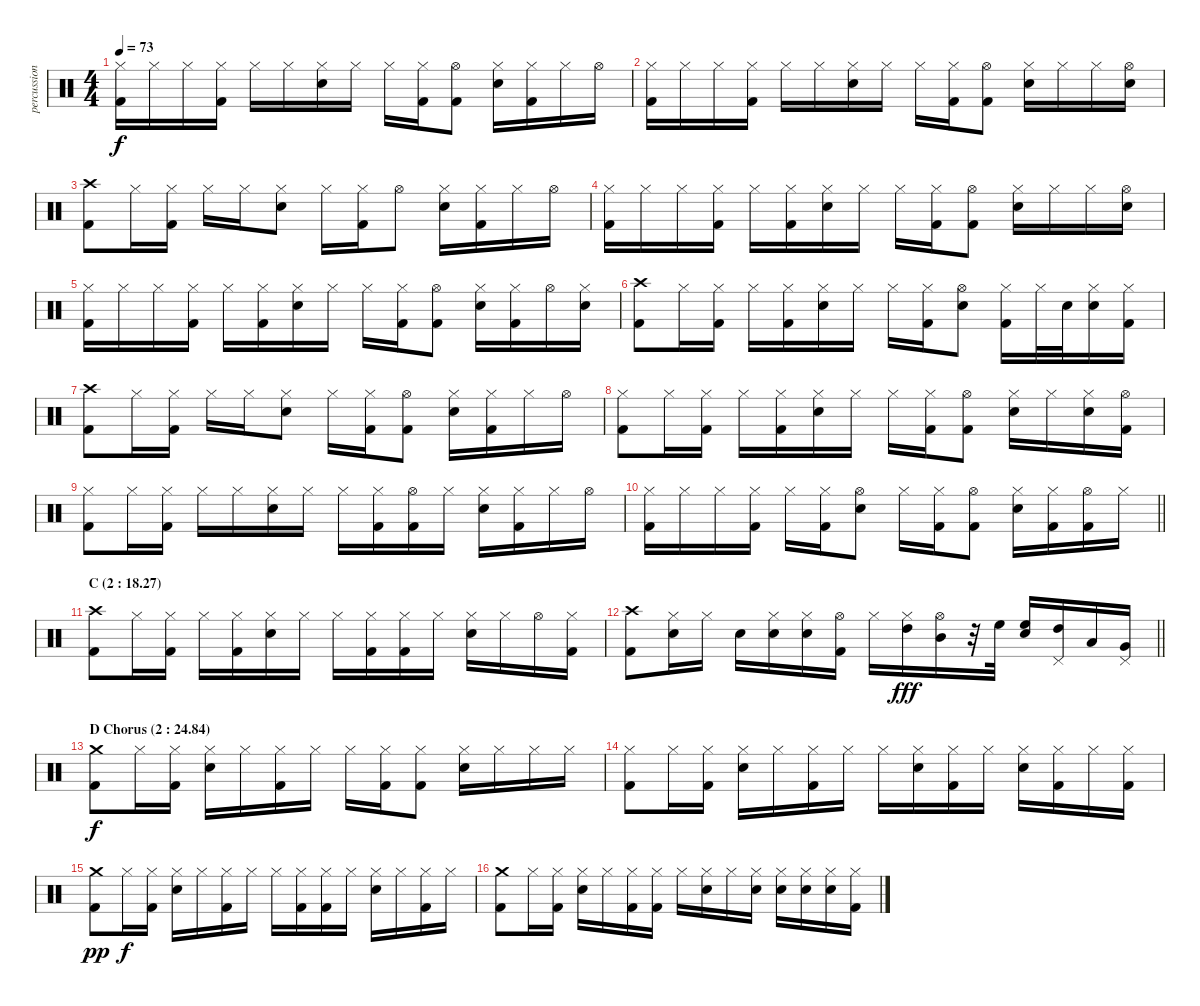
\track ("percussion" "percussion") {instrument percussion}
\staff {score}
\articulation defaults
\ts (4 4)
\tempo 73
\clef neutral
\ks c
("Hi-Hat (closed)" "Kick (hit) 2").16{dy f} "Hi-Hat (closed)".16 "Hi-Hat (closed)".16 ("Hi-Hat (closed)" "Kick (hit) 2").16 "Hi-Hat (closed)".16 "Hi-Hat (closed)".16 ("Snare (hit) 2" "Hi-Hat (closed)").16 "Hi-Hat (closed)".16 "Hi-Hat (closed)".16 ("Hi-Hat (closed)" "Kick (hit) 2").16 ("Hi-Hat (open)" "Kick (hit) 2").8 ("Snare (hit) 2" "Hi-Hat (closed)").16 ("Hi-Hat (closed)" "Kick (hit) 2").16 "Hi-Hat (closed)".16 "Hi-Hat (open)".16 |
("Hi-Hat (closed)" "Kick (hit) 2").16 "Hi-Hat (closed)".16 "Hi-Hat (closed)".16 ("Hi-Hat (closed)" "Kick (hit) 2").16 "Hi-Hat (closed)".16 "Hi-Hat (closed)".16 ("Snare (hit) 2" "Hi-Hat (closed)").16 "Hi-Hat (closed)".16 "Hi-Hat (closed)".16 ("Hi-Hat (closed)" "Kick (hit) 2").16 ("Hi-Hat (open)" "Kick (hit) 2").8 ("Snare (hit) 2" "Hi-Hat (closed)").16 "Hi-Hat (closed)".16 "Hi-Hat (closed)".16 ("Snare (hit) 2" "Hi-Hat (open)").16 |
("Crash high (hit)" "Kick (hit) 2").8 "Hi-Hat (closed)".16 ("Hi-Hat (closed)" "Kick (hit) 2").16 "Hi-Hat (closed)".16 "Hi-Hat (closed)".16 ("Snare (hit) 2" "Hi-Hat (closed)").8 "Hi-Hat (closed)".16 ("Hi-Hat (closed)" "Kick (hit) 2").16 "Hi-Hat (open)".8 ("Snare (hit) 2" "Hi-Hat (closed)").16 ("Hi-Hat (closed)" "Kick (hit) 2").16 "Hi-Hat (closed)".16 "Hi-Hat (open)".16 |
("Hi-Hat (closed)" "Kick (hit) 2").16 "Hi-Hat (closed)".16 "Hi-Hat (closed)".16 ("Hi-Hat (closed)" "Kick (hit) 2").16 "Hi-Hat (closed)".16 ("Hi-Hat (closed)" "Kick (hit) 2").16 ("Snare (hit) 2" "Hi-Hat (closed)").16 "Hi-Hat (closed)".16 "Hi-Hat (closed)".16 ("Hi-Hat (closed)" "Kick (hit) 2").16 ("Hi-Hat (open)" "Kick (hit) 2").8 ("Snare (hit) 2" "Hi-Hat (closed)").16 "Hi-Hat (closed)".16 "Hi-Hat (closed)".16 ("Snare (hit) 2" "Hi-Hat (open)").16 |
("Hi-Hat (closed)" "Kick (hit) 2").16 "Hi-Hat (closed)".16 "Hi-Hat (closed)".16 ("Hi-Hat (closed)" "Kick (hit) 2").16 "Hi-Hat (closed)".16 ("Hi-Hat (closed)" "Kick (hit) 2").16 ("Snare (hit) 2" "Hi-Hat (closed)").16 "Hi-Hat (closed)".16 "Hi-Hat (closed)".16 ("Hi-Hat (closed)" "Kick (hit) 2").16 ("Hi-Hat (open)" "Kick (hit) 2").8 ("Snare (hit) 2" "Hi-Hat (closed)").16 ("Hi-Hat (closed)" "Kick (hit) 2").16 "Hi-Hat (open)".16 ("Snare (hit) 2" "Hi-Hat (closed)").16 |
("Crash high (hit)" "Kick (hit) 2").8 "Hi-Hat (closed)".16 ("Hi-Hat (closed)" "Kick (hit) 2").16 "Hi-Hat (closed)".16 ("Hi-Hat (closed)" "Kick (hit) 2").16 ("Snare (hit) 2" "Hi-Hat (closed)").16 "Hi-Hat (closed)".16 "Hi-Hat (closed)".16 ("Hi-Hat (closed)" "Kick (hit) 2").16 ("Snare (hit) 2" "Hi-Hat (open)").8 ("Hi-Hat (closed)" "Kick (hit) 2").16 "Hi-Hat (closed)".32 "Snare (hit) 2".32 ("Snare (hit) 2" "Hi-Hat (closed)").16 ("Hi-Hat (closed)" "Kick (hit) 2").16 |
("Crash high (hit)" "Kick (hit) 2").8 "Hi-Hat (closed)".16 ("Hi-Hat (closed)" "Kick (hit) 2").16 "Hi-Hat (closed)".16 "Hi-Hat (closed)".16 ("Snare (hit) 2" "Hi-Hat (closed)").8 "Hi-Hat (closed)".16 ("Hi-Hat (closed)" "Kick (hit) 2").16 ("Hi-Hat (open)" "Kick (hit) 2").8 ("Snare (hit) 2" "Hi-Hat (closed)").16 ("Hi-Hat (closed)" "Kick (hit) 2").16 "Hi-Hat (closed)".16 "Hi-Hat (open)".16 |
("Hi-Hat (closed)" "Kick (hit) 2").8 "Hi-Hat (closed)".16 ("Hi-Hat (closed)" "Kick (hit) 2").16 "Hi-Hat (closed)".16 ("Hi-Hat (closed)" "Kick (hit) 2").16 ("Snare (hit) 2" "Hi-Hat (closed)").16 "Hi-Hat (closed)".16 "Hi-Hat (closed)".16 ("Hi-Hat (closed)" "Kick (hit) 2").16 ("Hi-Hat (open)" "Kick (hit) 2").8 ("Snare (hit) 2" "Hi-Hat (closed)").16 "Hi-Hat (closed)".16 ("Snare (hit) 2" "Hi-Hat (closed)").16 ("Hi-Hat (open)" "Kick (hit) 2").16 |
("Hi-Hat (closed)" "Kick (hit) 2").8 "Hi-Hat (closed)".16 ("Hi-Hat (closed)" "Kick (hit) 2").16 "Hi-Hat (closed)".16 "Hi-Hat (closed)".16 ("Snare (hit) 2" "Hi-Hat (closed)").16 "Hi-Hat (closed)".16 "Hi-Hat (closed)".16 ("Hi-Hat (closed)" "Kick (hit) 2").16 ("Hi-Hat (open)" "Kick (hit) 2").16 "Hi-Hat (closed)".16 ("Snare (hit) 2" "Hi-Hat (closed)").16 ("Hi-Hat (closed)" "Kick (hit) 2").16 "Hi-Hat (closed)".16 "Hi-Hat (open)".16 |
\barLineRight lightlight
("Hi-Hat (closed)" "Kick (hit) 2").16 "Hi-Hat (closed)".16 "Hi-Hat (closed)".16 ("Hi-Hat (closed)" "Kick (hit) 2").16 "Hi-Hat (closed)".16 ("Hi-Hat (closed)" "Kick (hit) 2").16 ("Snare (hit) 2" "Hi-Hat (open)").8 "Hi-Hat (closed)".16 ("Hi-Hat (closed)" "Kick (hit) 2").16 ("Hi-Hat (open)" "Kick (hit) 2").8 ("Snare (hit) 2" "Hi-Hat (closed)").16 ("Hi-Hat (closed)" "Kick (hit) 2").16 ("Hi-Hat (open)" "Kick (hit) 2").16 "Hi-Hat (closed)".16 |
\section ("" "C (2 : 18.27)")
("Crash high (hit)" "Kick (hit) 2").8 "Hi-Hat (closed)".16 ("Hi-Hat (closed)" "Kick (hit) 2").16 "Hi-Hat (closed)".16 ("Hi-Hat (closed)" "Kick (hit) 2").16 ("Snare (hit) 2" "Hi-Hat (closed)").16 "Hi-Hat (closed)".16 "Hi-Hat (closed)".16 ("Hi-Hat (closed)" "Kick (hit) 2").16 ("Hi-Hat (closed)" "Kick (hit) 2").16 "Hi-Hat (closed)".16 ("Snare (hit) 2" "Hi-Hat (closed)").16 "Hi-Hat (closed)".16 "Hi-Hat (open)".16 ("Hi-Hat (closed)" "Kick (hit) 2").16 |
\barLineRight lightlight
("Crash high (hit)" "Kick (hit) 2").8 ("Snare (hit) 2" "Hi-Hat (closed)").16 "Hi-Hat (closed)".16 "Snare (hit) 2".16 ("Snare (hit) 2" "Hi-Hat (closed)").16 ("Snare (hit) 2" "Hi-Hat (closed)").16 ("Hi-Hat (open)" "Kick (hit) 2").16 "Hi-Hat (closed)".16 ("High Tom (hit)" "Hi-Hat (closed)").16{dy fff} ("Mid Tom (hit)" "Hi-Hat (open)").16 r.32 "High Floor Tom (hit)".32 ("High Floor Tom (hit)" "Snare (hit) 2").16 ("High Tom (hit)" "Pedal Hi-Hat (hit)").16 "Low Tom (hit)".16 ("Very Low Tom (hit)" "Pedal Hi-Hat (hit)").16 |
\section ("" "D Chorus (2 : 24.84)")
("Crash medium (hit)" "Kick (hit) 2").8{dy f} "Hi-Hat (closed)".16 ("Hi-Hat (closed)" "Kick (hit) 2").16 ("Snare (hit) 2" "Hi-Hat (closed)").16 "Hi-Hat (closed)".16 ("Hi-Hat (closed)" "Kick (hit) 2").16 "Hi-Hat (closed)".16 "Hi-Hat (closed)".16 ("Hi-Hat (closed)" "Kick (hit) 2").16 ("Hi-Hat (closed)" "Kick (hit) 2").8 ("Snare (hit) 2" "Hi-Hat (closed)").16 "Hi-Hat (closed)".16 "Hi-Hat (closed)".16 "Hi-Hat (closed)".16 |
("Hi-Hat (closed)" "Kick (hit) 2").8 "Hi-Hat (closed)".16 ("Hi-Hat (closed)" "Kick (hit) 2").16 ("Snare (hit) 2" "Hi-Hat (closed)").16 "Hi-Hat (closed)".16 ("Hi-Hat (closed)" "Kick (hit) 2").16 "Hi-Hat (closed)".16 "Hi-Hat (closed)".16 ("Snare (hit) 2" "Hi-Hat (closed)").16 ("Hi-Hat (closed)" "Kick (hit) 2").16 "Hi-Hat (closed)".16 ("Snare (hit) 2" "Hi-Hat (closed)").16 ("Hi-Hat (closed)" "Kick (hit) 2").16 "Hi-Hat (closed)".16 ("Hi-Hat (closed)" "Kick (hit) 2").16 |
("Crash medium (hit)" "Kick (hit) 2").8{dy pp} "Hi-Hat (closed)".16{dy f} ("Hi-Hat (closed)" "Kick (hit) 2").16 ("Snare (hit) 2" "Hi-Hat (closed)").16 "Hi-Hat (closed)".16 ("Hi-Hat (closed)" "Kick (hit) 2").16 "Hi-Hat (closed)".16 "Hi-Hat (closed)".16 ("Hi-Hat (closed)" "Kick (hit) 2").16 ("Hi-Hat (closed)" "Kick (hit) 2").16 "Hi-Hat (closed)".16 ("Snare (hit) 2" "Hi-Hat (closed)").16 "Hi-Hat (closed)".16 ("Hi-Hat (closed)" "Kick (hit) 2").16 "Hi-Hat (closed)".16 |
("Crash medium (hit)" "Kick (hit) 2").8 "Hi-Hat (closed)".16 ("Hi-Hat (closed)" "Kick (hit) 2").16 ("Snare (hit) 2" "Hi-Hat (closed)").16 "Hi-Hat (closed)".16 ("Hi-Hat (closed)" "Kick (hit) 2").16 ("Hi-Hat (closed)" "Kick (hit) 2").16 "Hi-Hat (closed)".16 ("Snare (hit) 2" "Hi-Hat (closed)").16 "Hi-Hat (closed)".16 ("Snare (hit) 2" "Hi-Hat (closed)").16 ("Snare (hit) 2" "Hi-Hat (closed)").16 ("Snare (hit) 2" "Hi-Hat (closed)").16 ("Snare (hit) 2" "Hi-Hat (closed)").16 ("Hi-Hat (closed)" "Kick (hit) 2").16
